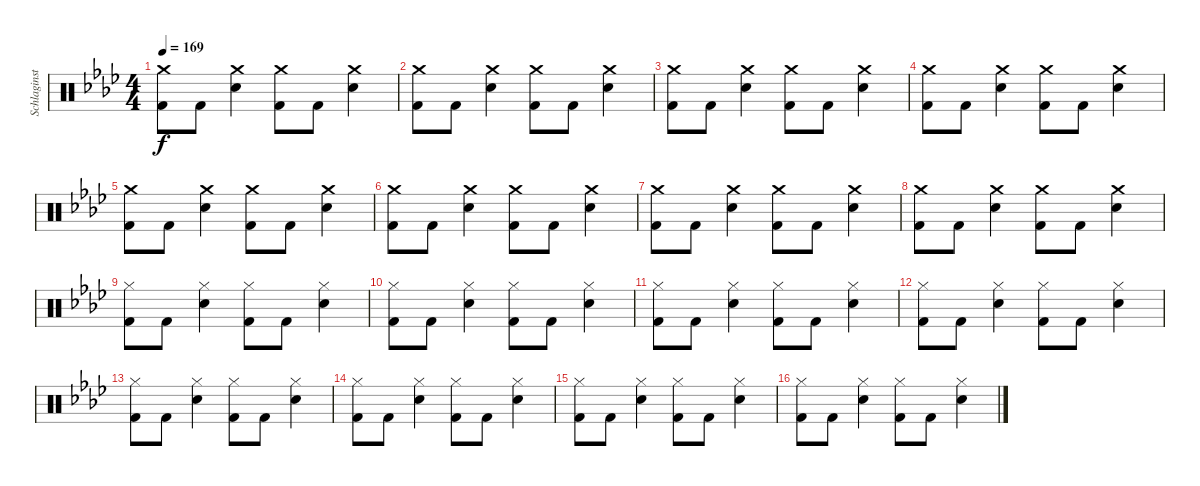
\track ("Schlaginstrumente - Auswahl" "Schlaginst") {instrument percussion}
\staff {score}
\articulation defaults
\ts (4 4)
\tempo 169
\clef neutral
\ks fminor
("Crash medium (hit)" "Kick (hit) 2").8{dy f} "Kick (hit) 2".8 ("Crash medium (hit)" "Electric Snare (hit)").4 ("Crash medium (hit)" "Kick (hit) 2").8 "Kick (hit) 2".8 ("Crash medium (hit)" "Electric Snare (hit)").4 |
("Crash medium (hit)" "Kick (hit) 2").8 "Kick (hit) 2".8 ("Crash medium (hit)" "Electric Snare (hit)").4 ("Crash medium (hit)" "Kick (hit) 2").8 "Kick (hit) 2".8 ("Crash medium (hit)" "Electric Snare (hit)").4 |
("Crash medium (hit)" "Kick (hit) 2").8 "Kick (hit) 2".8 ("Crash medium (hit)" "Electric Snare (hit)").4 ("Crash medium (hit)" "Kick (hit) 2").8 "Kick (hit) 2".8 ("Crash medium (hit)" "Electric Snare (hit)").4 |
("Crash medium (hit)" "Kick (hit) 2").8 "Kick (hit) 2".8 ("Crash medium (hit)" "Electric Snare (hit)").4 ("Crash medium (hit)" "Kick (hit) 2").8 "Kick (hit) 2".8 ("Crash medium (hit)" "Electric Snare (hit)").4 |
("Crash medium (hit)" "Kick (hit) 2").8 "Kick (hit) 2".8 ("Crash medium (hit)" "Electric Snare (hit)").4 ("Crash medium (hit)" "Kick (hit) 2").8 "Kick (hit) 2".8 ("Crash medium (hit)" "Electric Snare (hit)").4 |
("Crash medium (hit)" "Kick (hit) 2").8 "Kick (hit) 2".8 ("Crash medium (hit)" "Electric Snare (hit)").4 ("Crash medium (hit)" "Kick (hit) 2").8 "Kick (hit) 2".8 ("Crash medium (hit)" "Electric Snare (hit)").4 |
("Crash medium (hit)" "Kick (hit) 2").8 "Kick (hit) 2".8 ("Crash medium (hit)" "Electric Snare (hit)").4 ("Crash medium (hit)" "Kick (hit) 2").8 "Kick (hit) 2".8 ("Crash medium (hit)" "Electric Snare (hit)").4 |
("Crash medium (hit)" "Kick (hit) 2").8 "Kick (hit) 2".8 ("Crash medium (hit)" "Electric Snare (hit)").4 ("Crash medium (hit)" "Kick (hit) 2").8 "Kick (hit) 2".8 ("Crash medium (hit)" "Electric Snare (hit)").4 |
("Hi-Hat (closed)" "Kick (hit) 2").8 "Kick (hit) 2".8 ("Hi-Hat (closed)" "Electric Snare (hit)").4 ("Hi-Hat (closed)" "Kick (hit) 2").8 "Kick (hit) 2".8 ("Hi-Hat (closed)" "Electric Snare (hit)").4 |
("Hi-Hat (closed)" "Kick (hit) 2").8 "Kick (hit) 2".8 ("Hi-Hat (closed)" "Electric Snare (hit)").4 ("Hi-Hat (closed)" "Kick (hit) 2").8 "Kick (hit) 2".8 ("Hi-Hat (closed)" "Electric Snare (hit)").4 |
("Hi-Hat (closed)" "Kick (hit) 2").8 "Kick (hit) 2".8 ("Hi-Hat (closed)" "Electric Snare (hit)").4 ("Hi-Hat (closed)" "Kick (hit) 2").8 "Kick (hit) 2".8 ("Hi-Hat (closed)" "Electric Snare (hit)").4 |
("Hi-Hat (closed)" "Kick (hit) 2").8 "Kick (hit) 2".8 ("Hi-Hat (closed)" "Electric Snare (hit)").4 ("Hi-Hat (closed)" "Kick (hit) 2").8 "Kick (hit) 2".8 ("Hi-Hat (closed)" "Electric Snare (hit)").4 |
("Hi-Hat (closed)" "Kick (hit) 2").8 "Kick (hit) 2".8 ("Hi-Hat (closed)" "Electric Snare (hit)").4 ("Hi-Hat (closed)" "Kick (hit) 2").8 "Kick (hit) 2".8 ("Hi-Hat (closed)" "Electric Snare (hit)").4 |
("Hi-Hat (closed)" "Kick (hit) 2").8 "Kick (hit) 2".8 ("Hi-Hat (closed)" "Electric Snare (hit)").4 ("Hi-Hat (closed)" "Kick (hit) 2").8 "Kick (hit) 2".8 ("Hi-Hat (closed)" "Electric Snare (hit)").4 |
("Hi-Hat (closed)" "Kick (hit) 2").8 "Kick (hit) 2".8 ("Hi-Hat (closed)" "Electric Snare (hit)").4 ("Hi-Hat (closed)" "Kick (hit) 2").8 "Kick (hit) 2".8 ("Hi-Hat (closed)" "Electric Snare (hit)").4 |
("Hi-Hat (closed)" "Kick (hit) 2").8 "Kick (hit) 2".8 ("Hi-Hat (closed)" "Electric Snare (hit)").4 ("Hi-Hat (closed)" "Kick (hit) 2").8 "Kick (hit) 2".8 ("Hi-Hat (closed)" "Electric Snare (hit)").4
